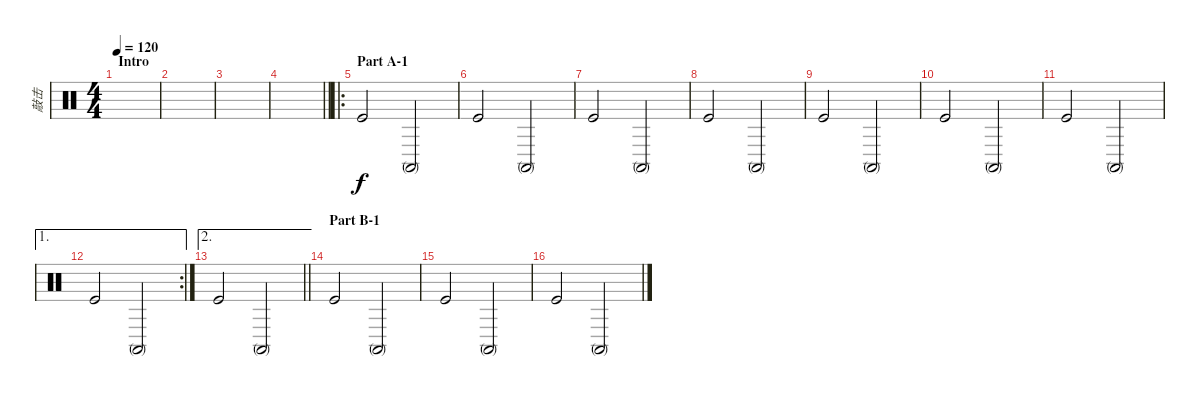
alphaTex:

\track ("敲击" "敲击") {instrument percussion}
\staff {score}
\articulation defaults
\ts (4 4)
\section ("" "Intro")
\tempo 120
\clef neutral
\ks c
|
|
|
\barLineRight lightlight
|
\ro
\section ("" "Part A-1")
"Kick (hit)".2 "Conga high (mute)".2 |
"Kick (hit)".2 "Conga high (mute)".2 |
"Kick (hit)".2 "Conga high (mute)".2 |
"Kick (hit)".2 "Conga high (mute)".2 |
"Kick (hit)".2 "Conga high (mute)".2 |
"Kick (hit)".2 "Conga high (mute)".2 |
"Kick (hit)".2 "Conga high (mute)".2 |
\ae 1
\rc 2 "Kick (hit)".2 "Conga high (mute)".2
|
\ae 2
\barLineRight lightlight "Kick (hit)".2 "Conga high (mute)".2
|
\section ("" "Part B-1")
"Kick (hit)".2 "Conga high (mute)".2 |
"Kick (hit)".2 "Conga high (mute)".2 |
"Kick (hit)".2 "Conga high (mute)".2
